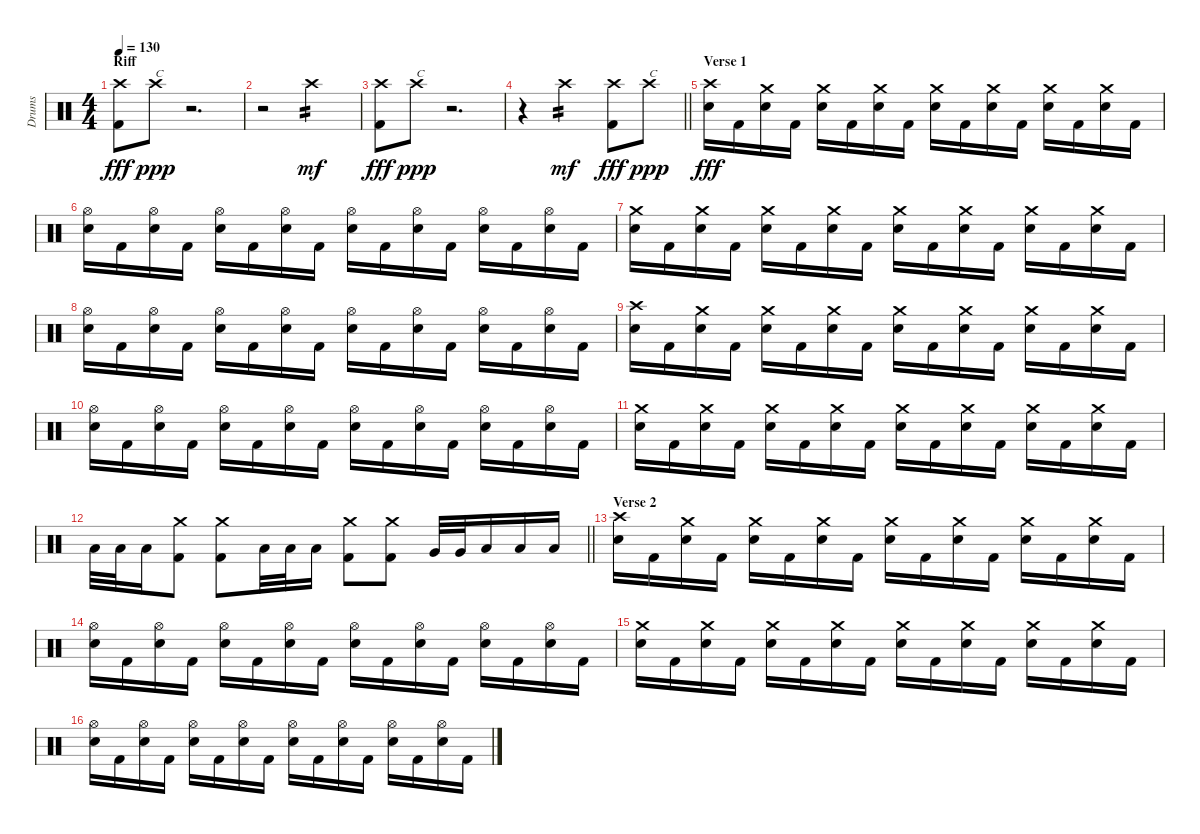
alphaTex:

\track ("Drums" "Drums") {instrument percussion}
\staff {score}
\articulation defaults
\ts (4 4)
\section ("" "Riff")
\tempo 130
\clef neutral
\ks c
("Crash high (hit)" "Kick (hit) 2").8{dy fff} "Crash high (hit)".8{txt "C" dy ppp} r.2{d} |
r.2{volume 0} "Crash high (hit)".2{tp 2 dy mf volume 12} |
("Crash high (hit)" "Kick (hit) 2").8{dy fff} "Crash high (hit)".8{txt "C" dy ppp} r.2{d} |
\barLineRight lightlight
r.4{volume 0} "Crash high (hit)".2{tp 2 dy mf volume 12} ("Crash high (hit)" "Kick (hit) 2").8{dy fff} "Crash high (hit)".8{txt "C" dy ppp} |
\section ("" "Verse 1")
("Crash high (hit)" "Snare (hit) 2").16{dy fff} "Kick (hit) 2".16 ("Crash medium (hit)" "Snare (hit) 2").16 "Kick (hit) 2".16 ("Crash medium (hit)" "Snare (hit) 2").16 "Kick (hit) 2".16 ("Crash medium (hit)" "Snare (hit) 2").16 "Kick (hit) 2".16 ("Crash medium (hit)" "Snare (hit) 2").16 "Kick (hit) 2".16 ("Crash medium (hit)" "Snare (hit) 2").16 "Kick (hit) 2".16 ("Crash medium (hit)" "Snare (hit) 2").16 "Kick (hit) 2".16 ("Crash medium (hit)" "Snare (hit) 2").16 "Kick (hit) 2".16 |
("Hi-Hat (open)" "Snare (hit) 2").16 "Kick (hit) 2".16 ("Hi-Hat (open)" "Snare (hit) 2").16 "Kick (hit) 2".16 ("Hi-Hat (open)" "Snare (hit) 2").16 "Kick (hit) 2".16 ("Hi-Hat (open)" "Snare (hit) 2").16 "Kick (hit) 2".16 ("Hi-Hat (open)" "Snare (hit) 2").16 "Kick (hit) 2".16 ("Hi-Hat (open)" "Snare (hit) 2").16 "Kick (hit) 2".16 ("Hi-Hat (open)" "Snare (hit) 2").16 "Kick (hit) 2".16 ("Hi-Hat (open)" "Snare (hit) 2").16 "Kick (hit) 2".16 |
("Crash medium (hit)" "Snare (hit) 2").16 "Kick (hit) 2".16 ("Crash medium (hit)" "Snare (hit) 2").16 "Kick (hit) 2".16 ("Crash medium (hit)" "Snare (hit) 2").16 "Kick (hit) 2".16 ("Crash medium (hit)" "Snare (hit) 2").16 "Kick (hit) 2".16 ("Crash medium (hit)" "Snare (hit) 2").16 "Kick (hit) 2".16 ("Crash medium (hit)" "Snare (hit) 2").16 "Kick (hit) 2".16 ("Crash medium (hit)" "Snare (hit) 2").16 "Kick (hit) 2".16 ("Crash medium (hit)" "Snare (hit) 2").16 "Kick (hit) 2".16 |
("Hi-Hat (open)" "Snare (hit) 2").16 "Kick (hit) 2".16 ("Hi-Hat (open)" "Snare (hit) 2").16 "Kick (hit) 2".16 ("Hi-Hat (open)" "Snare (hit) 2").16 "Kick (hit) 2".16 ("Hi-Hat (open)" "Snare (hit) 2").16 "Kick (hit) 2".16 ("Hi-Hat (open)" "Snare (hit) 2").16 "Kick (hit) 2".16 ("Hi-Hat (open)" "Snare (hit) 2").16 "Kick (hit) 2".16 ("Hi-Hat (open)" "Snare (hit) 2").16 "Kick (hit) 2".16 ("Hi-Hat (open)" "Snare (hit) 2").16 "Kick (hit) 2".16 |
("Crash high (hit)" "Snare (hit) 2").16 "Kick (hit) 2".16 ("Crash medium (hit)" "Snare (hit) 2").16 "Kick (hit) 2".16 ("Crash medium (hit)" "Snare (hit) 2").16 "Kick (hit) 2".16 ("Crash medium (hit)" "Snare (hit) 2").16 "Kick (hit) 2".16 ("Crash medium (hit)" "Snare (hit) 2").16 "Kick (hit) 2".16 ("Crash medium (hit)" "Snare (hit) 2").16 "Kick (hit) 2".16 ("Crash medium (hit)" "Snare (hit) 2").16 "Kick (hit) 2".16 ("Crash medium (hit)" "Snare (hit) 2").16 "Kick (hit) 2".16 |
("Hi-Hat (open)" "Snare (hit) 2").16 "Kick (hit) 2".16 ("Hi-Hat (open)" "Snare (hit) 2").16 "Kick (hit) 2".16 ("Hi-Hat (open)" "Snare (hit) 2").16 "Kick (hit) 2".16 ("Hi-Hat (open)" "Snare (hit) 2").16 "Kick (hit) 2".16 ("Hi-Hat (open)" "Snare (hit) 2").16 "Kick (hit) 2".16 ("Hi-Hat (open)" "Snare (hit) 2").16 "Kick (hit) 2".16 ("Hi-Hat (open)" "Snare (hit) 2").16 "Kick (hit) 2".16 ("Hi-Hat (open)" "Snare (hit) 2").16 "Kick (hit) 2".16 |
("Crash medium (hit)" "Snare (hit) 2").16 "Kick (hit) 2".16 ("Crash medium (hit)" "Snare (hit) 2").16 "Kick (hit) 2".16 ("Crash medium (hit)" "Snare (hit) 2").16 "Kick (hit) 2".16 ("Crash medium (hit)" "Snare (hit) 2").16 "Kick (hit) 2".16 ("Crash medium (hit)" "Snare (hit) 2").16 "Kick (hit) 2".16 ("Crash medium (hit)" "Snare (hit) 2").16 "Kick (hit) 2".16 ("Crash medium (hit)" "Snare (hit) 2").16 "Kick (hit) 2".16 ("Crash medium (hit)" "Snare (hit) 2").16 "Kick (hit) 2".16 |
\barLineRight lightlight "Low Tom (hit)".32 "Low Tom (hit)".32 "Low Tom (hit)".16
("Crash medium (hit)" "Kick (hit) 2").8 ("Crash medium (hit)" "Kick (hit) 2").8 "Low Tom (hit)".32 "Low Tom (hit)".32 "Low Tom (hit)".16 ("Crash medium (hit)" "Kick (hit) 2").8 ("Crash medium (hit)" "Kick (hit) 2").8 "Very Low Tom (hit)".32 "Very Low Tom (hit)".32 "Low Floor Tom (hit)".16 "Low Floor Tom (hit)".16 "Low Floor Tom (hit)".16 |
\section ("" "Verse 2")
("Crash high (hit)" "Snare (hit) 2").16 "Kick (hit) 2".16 ("Crash medium (hit)" "Snare (hit) 2").16 "Kick (hit) 2".16 ("Crash medium (hit)" "Snare (hit) 2").16 "Kick (hit) 2".16 ("Crash medium (hit)" "Snare (hit) 2").16 "Kick (hit) 2".16 ("Crash medium (hit)" "Snare (hit) 2").16 "Kick (hit) 2".16 ("Crash medium (hit)" "Snare (hit) 2").16 "Kick (hit) 2".16 ("Crash medium (hit)" "Snare (hit) 2").16 "Kick (hit) 2".16 ("Crash medium (hit)" "Snare (hit) 2").16 "Kick (hit) 2".16 |
("Hi-Hat (open)" "Snare (hit) 2").16 "Kick (hit) 2".16 ("Hi-Hat (open)" "Snare (hit) 2").16 "Kick (hit) 2".16 ("Hi-Hat (open)" "Snare (hit) 2").16 "Kick (hit) 2".16 ("Hi-Hat (open)" "Snare (hit) 2").16 "Kick (hit) 2".16 ("Hi-Hat (open)" "Snare (hit) 2").16 "Kick (hit) 2".16 ("Hi-Hat (open)" "Snare (hit) 2").16 "Kick (hit) 2".16 ("Hi-Hat (open)" "Snare (hit) 2").16 "Kick (hit) 2".16 ("Hi-Hat (open)" "Snare (hit) 2").16 "Kick (hit) 2".16 |
("Crash medium (hit)" "Snare (hit) 2").16 "Kick (hit) 2".16 ("Crash medium (hit)" "Snare (hit) 2").16 "Kick (hit) 2".16 ("Crash medium (hit)" "Snare (hit) 2").16 "Kick (hit) 2".16 ("Crash medium (hit)" "Snare (hit) 2").16 "Kick (hit) 2".16 ("Crash medium (hit)" "Snare (hit) 2").16 "Kick (hit) 2".16 ("Crash medium (hit)" "Snare (hit) 2").16 "Kick (hit) 2".16 ("Crash medium (hit)" "Snare (hit) 2").16 "Kick (hit) 2".16 ("Crash medium (hit)" "Snare (hit) 2").16 "Kick (hit) 2".16 |
("Hi-Hat (open)" "Snare (hit) 2").16 "Kick (hit) 2".16 ("Hi-Hat (open)" "Snare (hit) 2").16 "Kick (hit) 2".16 ("Hi-Hat (open)" "Snare (hit) 2").16 "Kick (hit) 2".16 ("Hi-Hat (open)" "Snare (hit) 2").16 "Kick (hit) 2".16 ("Hi-Hat (open)" "Snare (hit) 2").16 "Kick (hit) 2".16 ("Hi-Hat (open)" "Snare (hit) 2").16 "Kick (hit) 2".16 ("Hi-Hat (open)" "Snare (hit) 2").16 "Kick (hit) 2".16 ("Hi-Hat (open)" "Snare (hit) 2").16 "Kick (hit) 2".16
